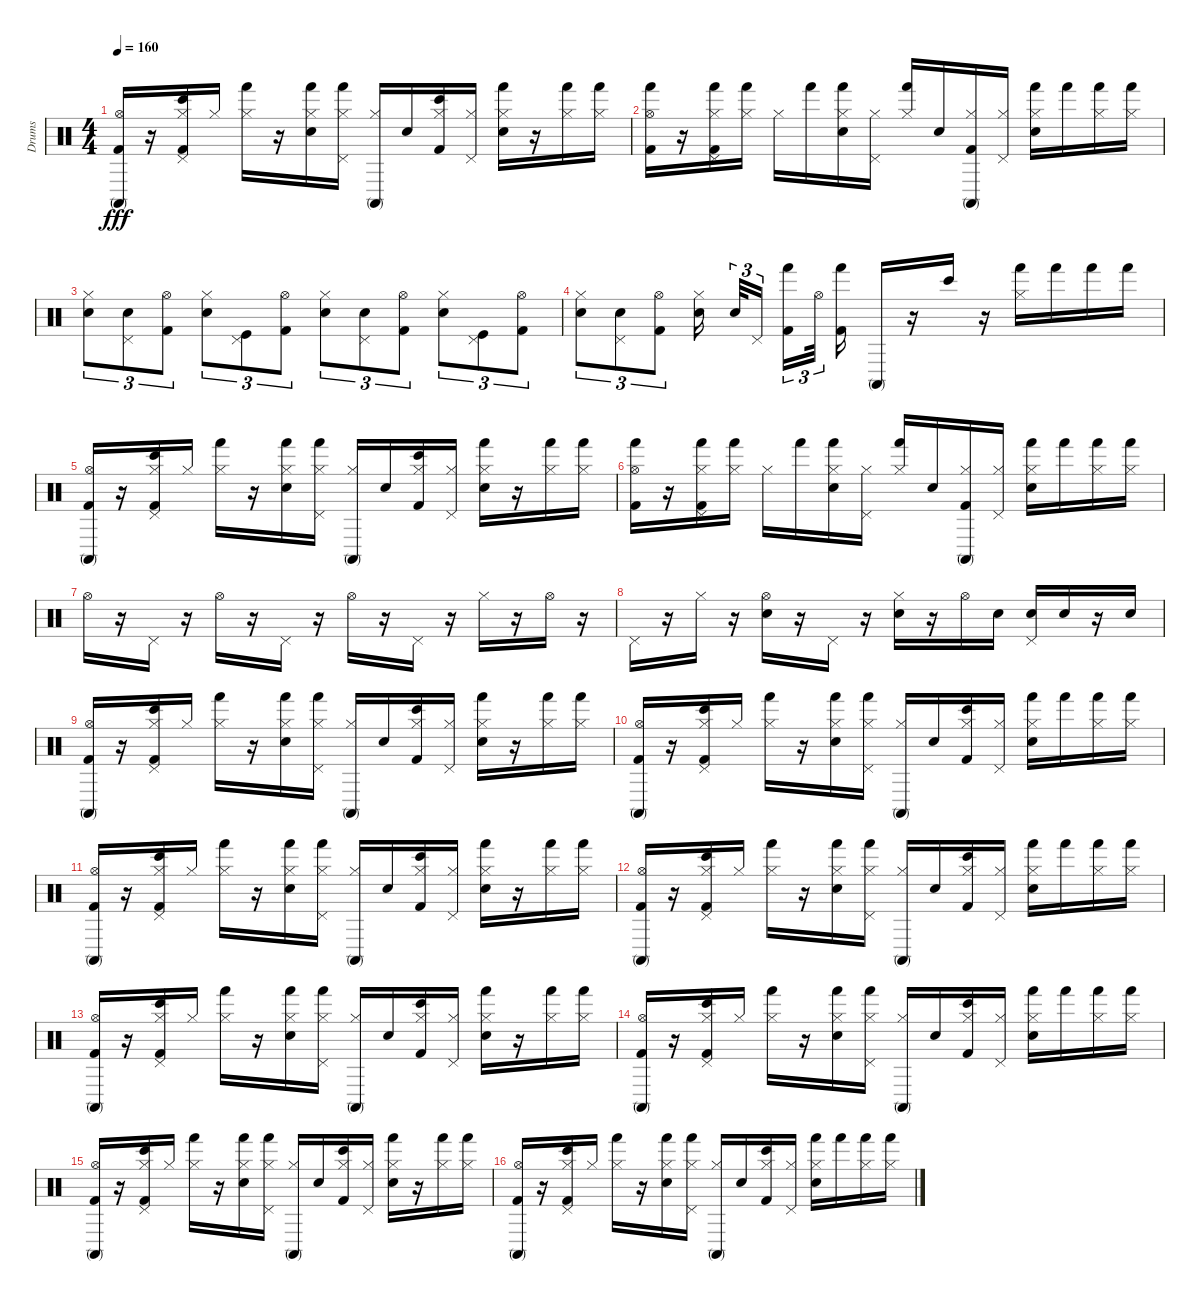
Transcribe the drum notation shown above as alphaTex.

\track ("Drums" "Drums") {instrument percussion}
\staff {score}
\articulation defaults
\ts (4 4)
\tempo 160
\clef neutral
\ks c
("Conga high (mute)" "Kick (hit) 2" "Hi-Hat (open)").16{dy fff} r.16 ("Kick (hit) 2" "Bongo High (hit)" "Pedal Hi-Hat (hit)" "Hi-Hat (closed)").16 "Hi-Hat (closed)".16 ("Hi-Hat (closed)" "Hand (hit)").16 r.16 ("Electric Snare (hit)" "Hand (hit)" "Hi-Hat (closed)").16 ("Hi-Hat (closed)" "Pedal Hi-Hat (hit)" "Hand (hit)").16 ("Conga high (mute)" "Hi-Hat (closed)").16 "Electric Snare (hit)".16 ("Kick (hit) 2" "Bongo High (hit)" "Hi-Hat (closed)").16 ("Hi-Hat (closed)" "Pedal Hi-Hat (hit)").16 ("Hand (hit)" "Electric Snare (hit)" "Hi-Hat (closed)").16 r.16 ("Hand (hit)" "Hi-Hat (closed)").16 ("Hand (hit)" "Hi-Hat (closed)").16 |
("Kick (hit) 2" "Hand (hit)" "Hi-Hat (open)").16 r.16 ("Hi-Hat (closed)" "Kick (hit) 2" "Pedal Hi-Hat (hit)" "Hand (hit)").16 ("Hand (hit)" "Hi-Hat (closed)").16 "Hi-Hat (closed)".16 "Hand (hit)".16 ("Hand (hit)" "Hi-Hat (closed)" "Electric Snare (hit)").16 ("Pedal Hi-Hat (hit)" "Hi-Hat (closed)").16 ("Hi-Hat (closed)" "Hand (hit)").16 "Electric Snare (hit)".16 ("Hi-Hat (closed)" "Conga high (mute)" "Kick (hit) 2").16 ("Pedal Hi-Hat (hit)" "Hi-Hat (closed)").16 ("Hand (hit)" "Hi-Hat (closed)" "Electric Snare (hit)").16 "Hand (hit)".16 ("Hand (hit)" "Hi-Hat (closed)").16 ("Hand (hit)" "Hi-Hat (closed)").16 |
("Hi-Hat (closed)" "Electric Snare (hit)").8{tu (3 2)} ("Pedal Hi-Hat (hit)" "Electric Snare (hit)").8{tu (3 2)} ("Hi-Hat (open)" "Kick (hit) 2").8{tu (3 2)} ("Hi-Hat (closed)" "Electric Snare (hit)").8{tu (3 2)} ("Pedal Hi-Hat (hit)" "Kick (hit)").8{tu (3 2)} ("Hi-Hat (open)" "Kick (hit) 2").8{tu (3 2)} ("Hi-Hat (closed)" "Electric Snare (hit)").8{tu (3 2)} ("Electric Snare (hit)" "Pedal Hi-Hat (hit)").8{tu (3 2)} ("Hi-Hat (open)" "Kick (hit) 2").8{tu (3 2)} ("Electric Snare (hit)" "Hi-Hat (closed)").8{tu (3 2)} ("Pedal Hi-Hat (hit)" "Kick (hit)").8{tu (3 2)} ("Kick (hit) 2" "Hi-Hat (open)").8{tu (3 2)} |
("Hi-Hat (closed)" "Electric Snare (hit)").8{tu (3 2)} ("Electric Snare (hit)" "Pedal Hi-Hat (hit)").8{tu (3 2)} ("Hi-Hat (open)" "Kick (hit) 2").8{tu (3 2)} ("Hi-Hat (closed)" "Electric Snare (hit)").16{beam splitsecondary} "Electric Snare (hit)".32{tu (3 2)} "Pedal Hi-Hat (hit)".16{tu (3 2) beam splitsecondary} ("Hand (hit)" "Kick (hit) 2").16{tu (3 2)} "Hi-Hat (open)".32{tu (3 2) beam splitsecondary} ("Hand (hit)" "Kick (hit) 2").16 "Conga high (mute)".16 r.16 "Bongo High (hit)".16 r.16 ("Hand (hit)" "Hi-Hat (closed)").16 "Hand (hit)".16 "Hand (hit)".16 "Hand (hit)".16 |
("Kick (hit) 2" "Conga high (mute)" "Hi-Hat (open)").16 r.16 ("Bongo High (hit)" "Hi-Hat (closed)" "Pedal Hi-Hat (hit)" "Kick (hit) 2").16 "Hi-Hat (closed)".16 ("Hi-Hat (closed)" "Hand (hit)").16 r.16 ("Hi-Hat (closed)" "Hand (hit)" "Electric Snare (hit)").16 ("Pedal Hi-Hat (hit)" "Hand (hit)" "Hi-Hat (closed)").16 ("Hi-Hat (closed)" "Conga high (mute)").16 "Electric Snare (hit)".16 ("Bongo High (hit)" "Hi-Hat (closed)" "Kick (hit) 2").16 ("Pedal Hi-Hat (hit)" "Hi-Hat (closed)").16 ("Hi-Hat (closed)" "Electric Snare (hit)" "Hand (hit)").16 r.16 ("Hi-Hat (closed)" "Hand (hit)").16 ("Hi-Hat (closed)" "Hand (hit)").16 |
("Hi-Hat (open)" "Kick (hit) 2" "Hand (hit)").16 r.16 ("Pedal Hi-Hat (hit)" "Kick (hit) 2" "Hand (hit)" "Hi-Hat (closed)").16 ("Hi-Hat (closed)" "Hand (hit)").16 "Hi-Hat (closed)".16 "Hand (hit)".16 ("Electric Snare (hit)" "Hand (hit)" "Hi-Hat (closed)").16 ("Hi-Hat (closed)" "Pedal Hi-Hat (hit)").16 ("Hi-Hat (closed)" "Hand (hit)").16 "Electric Snare (hit)".16 ("Conga high (mute)" "Kick (hit) 2" "Hi-Hat (closed)").16 ("Pedal Hi-Hat (hit)" "Hi-Hat (closed)").16 ("Hand (hit)" "Hi-Hat (closed)" "Electric Snare (hit)").16 "Hand (hit)".16 ("Hi-Hat (closed)" "Hand (hit)").16 ("Hi-Hat (closed)" "Hand (hit)").16 |
"Hi-Hat (open)".16 r.16 "Pedal Hi-Hat (hit)".16 r.16 "Hi-Hat (open)".16 r.16 "Pedal Hi-Hat (hit)".16 r.16 "Hi-Hat (open)".16 r.16 "Pedal Hi-Hat (hit)".16 r.16 "Hi-Hat (closed)".16 r.16 "Hi-Hat (open)".16 r.16 |
"Pedal Hi-Hat (hit)".16 r.16 "Hi-Hat (closed)".16 r.16 ("Hi-Hat (open)" "Electric Snare (hit)").16 r.16 "Pedal Hi-Hat (hit)".16 r.16 ("Electric Snare (hit)" "Hi-Hat (closed)").16 r.16 "Hi-Hat (open)".16 "Electric Snare (hit)".16 ("Pedal Hi-Hat (hit)" "Electric Snare (hit)").16 "Electric Snare (hit)".16 r.16 "Electric Snare (hit)".16 |
("Hi-Hat (open)" "Kick (hit) 2" "Conga high (mute)").16 r.16 ("Kick (hit) 2" "Pedal Hi-Hat (hit)" "Bongo High (hit)" "Hi-Hat (closed)").16 "Hi-Hat (closed)".16 ("Hand (hit)" "Hi-Hat (closed)").16 r.16 ("Hi-Hat (closed)" "Hand (hit)" "Electric Snare (hit)").16 ("Hand (hit)" "Hi-Hat (closed)" "Pedal Hi-Hat (hit)").16 ("Conga high (mute)" "Hi-Hat (closed)").16 "Electric Snare (hit)".16 ("Bongo High (hit)" "Kick (hit) 2" "Hi-Hat (closed)").16 ("Hi-Hat (closed)" "Pedal Hi-Hat (hit)").16 ("Hi-Hat (closed)" "Electric Snare (hit)" "Hand (hit)").16 r.16 ("Hi-Hat (closed)" "Hand (hit)").16 ("Hi-Hat (closed)" "Hand (hit)").16 |
("Conga high (mute)" "Hi-Hat (open)" "Kick (hit) 2").16 r.16 ("Kick (hit) 2" "Bongo High (hit)" "Pedal Hi-Hat (hit)" "Hi-Hat (closed)").16 "Hi-Hat (closed)".16 ("Hand (hit)" "Hi-Hat (closed)").16 r.16 ("Hi-Hat (closed)" "Electric Snare (hit)" "Hand (hit)").16 ("Pedal Hi-Hat (hit)" "Hi-Hat (closed)" "Hand (hit)").16 ("Conga high (mute)" "Hi-Hat (closed)").16 "Electric Snare (hit)".16 ("Kick (hit) 2" "Hi-Hat (closed)" "Bongo High (hit)").16 ("Pedal Hi-Hat (hit)" "Hi-Hat (closed)").16 ("Hi-Hat (closed)" "Electric Snare (hit)" "Hand (hit)").16 "Hand (hit)".16 ("Hi-Hat (closed)" "Hand (hit)").16 ("Hi-Hat (closed)" "Hand (hit)").16 |
("Kick (hit) 2" "Hi-Hat (open)" "Conga high (mute)").16 r.16 ("Pedal Hi-Hat (hit)" "Kick (hit) 2" "Bongo High (hit)" "Hi-Hat (closed)").16 "Hi-Hat (closed)".16 ("Hand (hit)" "Hi-Hat (closed)").16 r.16 ("Electric Snare (hit)" "Hand (hit)" "Hi-Hat (closed)").16 ("Hi-Hat (closed)" "Pedal Hi-Hat (hit)" "Hand (hit)").16 ("Hi-Hat (closed)" "Conga high (mute)").16 "Electric Snare (hit)".16 ("Hi-Hat (closed)" "Bongo High (hit)" "Kick (hit) 2").16 ("Pedal Hi-Hat (hit)" "Hi-Hat (closed)").16 ("Electric Snare (hit)" "Hi-Hat (closed)" "Hand (hit)").16 r.16 ("Hi-Hat (closed)" "Hand (hit)").16 ("Hand (hit)" "Hi-Hat (closed)").16 |
("Hi-Hat (open)" "Conga high (mute)" "Kick (hit) 2").16 r.16 ("Kick (hit) 2" "Pedal Hi-Hat (hit)" "Bongo High (hit)" "Hi-Hat (closed)").16 "Hi-Hat (closed)".16 ("Hand (hit)" "Hi-Hat (closed)").16 r.16 ("Hand (hit)" "Electric Snare (hit)" "Hi-Hat (closed)").16 ("Hand (hit)" "Pedal Hi-Hat (hit)" "Hi-Hat (closed)").16 ("Hi-Hat (closed)" "Conga high (mute)").16 "Electric Snare (hit)".16 ("Bongo High (hit)" "Hi-Hat (closed)" "Kick (hit) 2").16 ("Pedal Hi-Hat (hit)" "Hi-Hat (closed)").16 ("Hand (hit)" "Electric Snare (hit)" "Hi-Hat (closed)").16 "Hand (hit)".16 ("Hi-Hat (closed)" "Hand (hit)").16 ("Hi-Hat (closed)" "Hand (hit)").16 |
("Conga high (mute)" "Kick (hit) 2" "Hi-Hat (open)").16 r.16 ("Kick (hit) 2" "Hi-Hat (closed)" "Bongo High (hit)" "Pedal Hi-Hat (hit)").16 "Hi-Hat (closed)".16 ("Hand (hit)" "Hi-Hat (closed)").16 r.16 ("Electric Snare (hit)" "Hand (hit)" "Hi-Hat (closed)").16 ("Hand (hit)" "Pedal Hi-Hat (hit)" "Hi-Hat (closed)").16 ("Hi-Hat (closed)" "Conga high (mute)").16 "Electric Snare (hit)".16 ("Hi-Hat (closed)" "Kick (hit) 2" "Bongo High (hit)").16 ("Pedal Hi-Hat (hit)" "Hi-Hat (closed)").16 ("Hand (hit)" "Hi-Hat (closed)" "Electric Snare (hit)").16 r.16 ("Hand (hit)" "Hi-Hat (closed)").16 ("Hi-Hat (closed)" "Hand (hit)").16 |
("Conga high (mute)" "Kick (hit) 2" "Hi-Hat (open)").16 r.16 ("Hi-Hat (closed)" "Pedal Hi-Hat (hit)" "Bongo High (hit)" "Kick (hit) 2").16 "Hi-Hat (closed)".16 ("Hi-Hat (closed)" "Hand (hit)").16 r.16 ("Hi-Hat (closed)" "Electric Snare (hit)" "Hand (hit)").16 ("Pedal Hi-Hat (hit)" "Hand (hit)" "Hi-Hat (closed)").16 ("Conga high (mute)" "Hi-Hat (closed)").16 "Electric Snare (hit)".16 ("Hi-Hat (closed)" "Kick (hit) 2" "Bongo High (hit)").16 ("Hi-Hat (closed)" "Pedal Hi-Hat (hit)").16 ("Hi-Hat (closed)" "Electric Snare (hit)" "Hand (hit)").16 "Hand (hit)".16 ("Hi-Hat (closed)" "Hand (hit)").16 ("Hi-Hat (closed)" "Hand (hit)").16 |
("Conga high (mute)" "Hi-Hat (open)" "Kick (hit) 2").16 r.16 ("Kick (hit) 2" "Bongo High (hit)" "Pedal Hi-Hat (hit)" "Hi-Hat (closed)").16 "Hi-Hat (closed)".16 ("Hand (hit)" "Hi-Hat (closed)").16 r.16 ("Hand (hit)" "Hi-Hat (closed)" "Electric Snare (hit)").16 ("Hand (hit)" "Hi-Hat (closed)" "Pedal Hi-Hat (hit)").16 ("Conga high (mute)" "Hi-Hat (closed)").16 "Electric Snare (hit)".16 ("Kick (hit) 2" "Hi-Hat (closed)" "Bongo High (hit)").16 ("Hi-Hat (closed)" "Pedal Hi-Hat (hit)").16 ("Hand (hit)" "Hi-Hat (closed)" "Electric Snare (hit)").16 r.16 ("Hi-Hat (closed)" "Hand (hit)").16 ("Hand (hit)" "Hi-Hat (closed)").16 |
("Conga high (mute)" "Kick (hit) 2" "Hi-Hat (open)").16 r.16 ("Hi-Hat (closed)" "Pedal Hi-Hat (hit)" "Kick (hit) 2" "Bongo High (hit)").16 "Hi-Hat (closed)".16 ("Hand (hit)" "Hi-Hat (closed)").16 r.16 ("Hi-Hat (closed)" "Electric Snare (hit)" "Hand (hit)").16 ("Hi-Hat (closed)" "Pedal Hi-Hat (hit)" "Hand (hit)").16 ("Hi-Hat (closed)" "Conga high (mute)").16 "Electric Snare (hit)".16 ("Hi-Hat (closed)" "Bongo High (hit)" "Kick (hit) 2").16 ("Pedal Hi-Hat (hit)" "Hi-Hat (closed)").16 ("Electric Snare (hit)" "Hi-Hat (closed)" "Hand (hit)").16 "Hand (hit)".16 ("Hand (hit)" "Hi-Hat (closed)").16 ("Hi-Hat (closed)" "Hand (hit)").16
